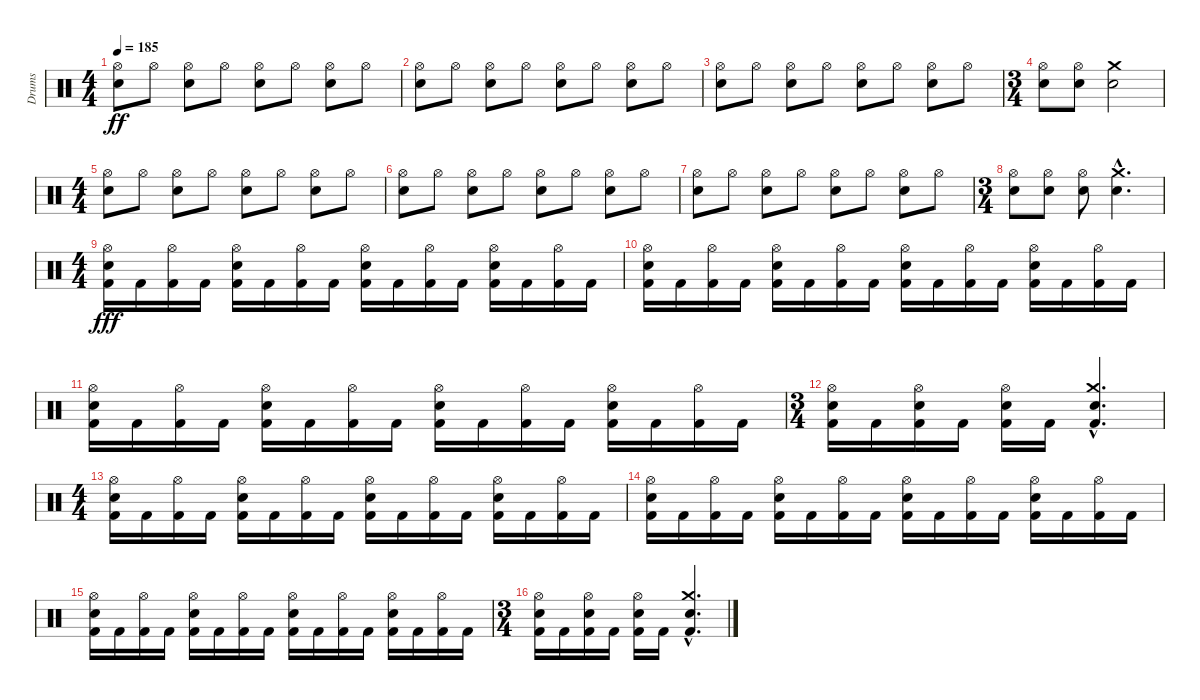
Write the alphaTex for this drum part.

\track ("Drums" "Drums") {instrument percussion}
\staff {score}
\articulation defaults
\ts (4 4)
\tempo 185
\clef neutral
\ks c
("Hi-Hat (open)" "Electric Snare (hit)").8{dy ff} "Hi-Hat (open)".8 ("Hi-Hat (open)" "Electric Snare (hit)").8 "Hi-Hat (open)".8 ("Hi-Hat (open)" "Electric Snare (hit)").8 "Hi-Hat (open)".8 ("Hi-Hat (open)" "Electric Snare (hit)").8 "Hi-Hat (open)".8 |
("Hi-Hat (open)" "Electric Snare (hit)").8 "Hi-Hat (open)".8 ("Hi-Hat (open)" "Electric Snare (hit)").8 "Hi-Hat (open)".8 ("Hi-Hat (open)" "Electric Snare (hit)").8 "Hi-Hat (open)".8 ("Hi-Hat (open)" "Electric Snare (hit)").8 "Hi-Hat (open)".8 |
("Hi-Hat (open)" "Electric Snare (hit)").8 "Hi-Hat (open)".8 ("Hi-Hat (open)" "Electric Snare (hit)").8 "Hi-Hat (open)".8 ("Hi-Hat (open)" "Electric Snare (hit)").8 "Hi-Hat (open)".8 ("Hi-Hat (open)" "Electric Snare (hit)").8 "Hi-Hat (open)".8 |
\ts (3 4)
("Electric Snare (hit)" "Hi-Hat (open)").8 ("Electric Snare (hit)" "Hi-Hat (open)").8 ("Electric Snare (hit)" "Crash medium (hit)").2 |
\ts (4 4)
("Hi-Hat (open)" "Electric Snare (hit)").8 "Hi-Hat (open)".8 ("Hi-Hat (open)" "Electric Snare (hit)").8 "Hi-Hat (open)".8 ("Hi-Hat (open)" "Electric Snare (hit)").8 "Hi-Hat (open)".8 ("Hi-Hat (open)" "Electric Snare (hit)").8 "Hi-Hat (open)".8 |
("Hi-Hat (open)" "Electric Snare (hit)").8 "Hi-Hat (open)".8 ("Hi-Hat (open)" "Electric Snare (hit)").8 "Hi-Hat (open)".8 ("Hi-Hat (open)" "Electric Snare (hit)").8 "Hi-Hat (open)".8 ("Hi-Hat (open)" "Electric Snare (hit)").8 "Hi-Hat (open)".8 |
("Hi-Hat (open)" "Electric Snare (hit)").8 "Hi-Hat (open)".8 ("Hi-Hat (open)" "Electric Snare (hit)").8 "Hi-Hat (open)".8 ("Hi-Hat (open)" "Electric Snare (hit)").8 "Hi-Hat (open)".8 ("Hi-Hat (open)" "Electric Snare (hit)").8 "Hi-Hat (open)".8 |
\ts (3 4)
("Electric Snare (hit)" "Hi-Hat (open)").8 ("Electric Snare (hit)" "Hi-Hat (open)").8 ("Electric Snare (hit)" "Hi-Hat (open)").8 ("Electric Snare (hit)"{hac} "Crash medium (hit)"{hac}).4{d} |
\ts (4 4)
("Hi-Hat (open)" "Electric Snare (hit)" "Kick (hit) 2").16{dy fff} "Kick (hit) 2".16 ("Hi-Hat (open)" "Kick (hit) 2").16 "Kick (hit) 2".16 ("Hi-Hat (open)" "Electric Snare (hit)" "Kick (hit) 2").16 "Kick (hit) 2".16 ("Hi-Hat (open)" "Kick (hit) 2").16 "Kick (hit) 2".16 ("Hi-Hat (open)" "Electric Snare (hit)" "Kick (hit) 2").16 "Kick (hit) 2".16 ("Hi-Hat (open)" "Kick (hit) 2").16 "Kick (hit) 2".16 ("Hi-Hat (open)" "Electric Snare (hit)" "Kick (hit) 2").16 "Kick (hit) 2".16 ("Hi-Hat (open)" "Kick (hit) 2").16 "Kick (hit) 2".16 |
("Hi-Hat (open)" "Electric Snare (hit)" "Kick (hit) 2").16 "Kick (hit) 2".16 ("Hi-Hat (open)" "Kick (hit) 2").16 "Kick (hit) 2".16 ("Hi-Hat (open)" "Electric Snare (hit)" "Kick (hit) 2").16 "Kick (hit) 2".16 ("Hi-Hat (open)" "Kick (hit) 2").16 "Kick (hit) 2".16 ("Hi-Hat (open)" "Electric Snare (hit)" "Kick (hit) 2").16 "Kick (hit) 2".16 ("Hi-Hat (open)" "Kick (hit) 2").16 "Kick (hit) 2".16 ("Hi-Hat (open)" "Electric Snare (hit)" "Kick (hit) 2").16 "Kick (hit) 2".16 ("Hi-Hat (open)" "Kick (hit) 2").16 "Kick (hit) 2".16 |
("Hi-Hat (open)" "Electric Snare (hit)" "Kick (hit) 2").16 "Kick (hit) 2".16 ("Hi-Hat (open)" "Kick (hit) 2").16 "Kick (hit) 2".16 ("Hi-Hat (open)" "Electric Snare (hit)" "Kick (hit) 2").16 "Kick (hit) 2".16 ("Hi-Hat (open)" "Kick (hit) 2").16 "Kick (hit) 2".16 ("Hi-Hat (open)" "Electric Snare (hit)" "Kick (hit) 2").16 "Kick (hit) 2".16 ("Hi-Hat (open)" "Kick (hit) 2").16 "Kick (hit) 2".16 ("Hi-Hat (open)" "Electric Snare (hit)" "Kick (hit) 2").16 "Kick (hit) 2".16 ("Hi-Hat (open)" "Kick (hit) 2").16 "Kick (hit) 2".16 |
\ts (3 4)
("Electric Snare (hit)" "Hi-Hat (open)" "Kick (hit) 2").16 "Kick (hit) 2".16 ("Electric Snare (hit)" "Hi-Hat (open)" "Kick (hit) 2").16 "Kick (hit) 2".16 ("Electric Snare (hit)" "Hi-Hat (open)" "Kick (hit) 2").16 "Kick (hit) 2".16 ("Electric Snare (hit)"{hac} "Crash medium (hit)"{hac} "Kick (hit) 2"{hac}).4{d} |
\ts (4 4)
("Hi-Hat (open)" "Electric Snare (hit)" "Kick (hit) 2").16 "Kick (hit) 2".16 ("Hi-Hat (open)" "Kick (hit) 2").16 "Kick (hit) 2".16 ("Hi-Hat (open)" "Electric Snare (hit)" "Kick (hit) 2").16 "Kick (hit) 2".16 ("Hi-Hat (open)" "Kick (hit) 2").16 "Kick (hit) 2".16 ("Hi-Hat (open)" "Electric Snare (hit)" "Kick (hit) 2").16 "Kick (hit) 2".16 ("Hi-Hat (open)" "Kick (hit) 2").16 "Kick (hit) 2".16 ("Hi-Hat (open)" "Electric Snare (hit)" "Kick (hit) 2").16 "Kick (hit) 2".16 ("Hi-Hat (open)" "Kick (hit) 2").16 "Kick (hit) 2".16 |
("Hi-Hat (open)" "Electric Snare (hit)" "Kick (hit) 2").16 "Kick (hit) 2".16 ("Hi-Hat (open)" "Kick (hit) 2").16 "Kick (hit) 2".16 ("Hi-Hat (open)" "Electric Snare (hit)" "Kick (hit) 2").16 "Kick (hit) 2".16 ("Hi-Hat (open)" "Kick (hit) 2").16 "Kick (hit) 2".16 ("Hi-Hat (open)" "Electric Snare (hit)" "Kick (hit) 2").16 "Kick (hit) 2".16 ("Hi-Hat (open)" "Kick (hit) 2").16 "Kick (hit) 2".16 ("Hi-Hat (open)" "Electric Snare (hit)" "Kick (hit) 2").16 "Kick (hit) 2".16 ("Hi-Hat (open)" "Kick (hit) 2").16 "Kick (hit) 2".16 |
("Hi-Hat (open)" "Electric Snare (hit)" "Kick (hit) 2").16 "Kick (hit) 2".16 ("Hi-Hat (open)" "Kick (hit) 2").16 "Kick (hit) 2".16 ("Hi-Hat (open)" "Electric Snare (hit)" "Kick (hit) 2").16 "Kick (hit) 2".16 ("Hi-Hat (open)" "Kick (hit) 2").16 "Kick (hit) 2".16 ("Hi-Hat (open)" "Electric Snare (hit)" "Kick (hit) 2").16 "Kick (hit) 2".16 ("Hi-Hat (open)" "Kick (hit) 2").16 "Kick (hit) 2".16 ("Hi-Hat (open)" "Electric Snare (hit)" "Kick (hit) 2").16 "Kick (hit) 2".16 ("Hi-Hat (open)" "Kick (hit) 2").16 "Kick (hit) 2".16 |
\ts (3 4)
("Electric Snare (hit)" "Hi-Hat (open)" "Kick (hit) 2").16 "Kick (hit) 2".16 ("Electric Snare (hit)" "Hi-Hat (open)" "Kick (hit) 2").16 "Kick (hit) 2".16 ("Electric Snare (hit)" "Hi-Hat (open)" "Kick (hit) 2").16 "Kick (hit) 2".16 ("Electric Snare (hit)"{hac} "Crash medium (hit)"{hac} "Kick (hit) 2"{hac}).4{d}
